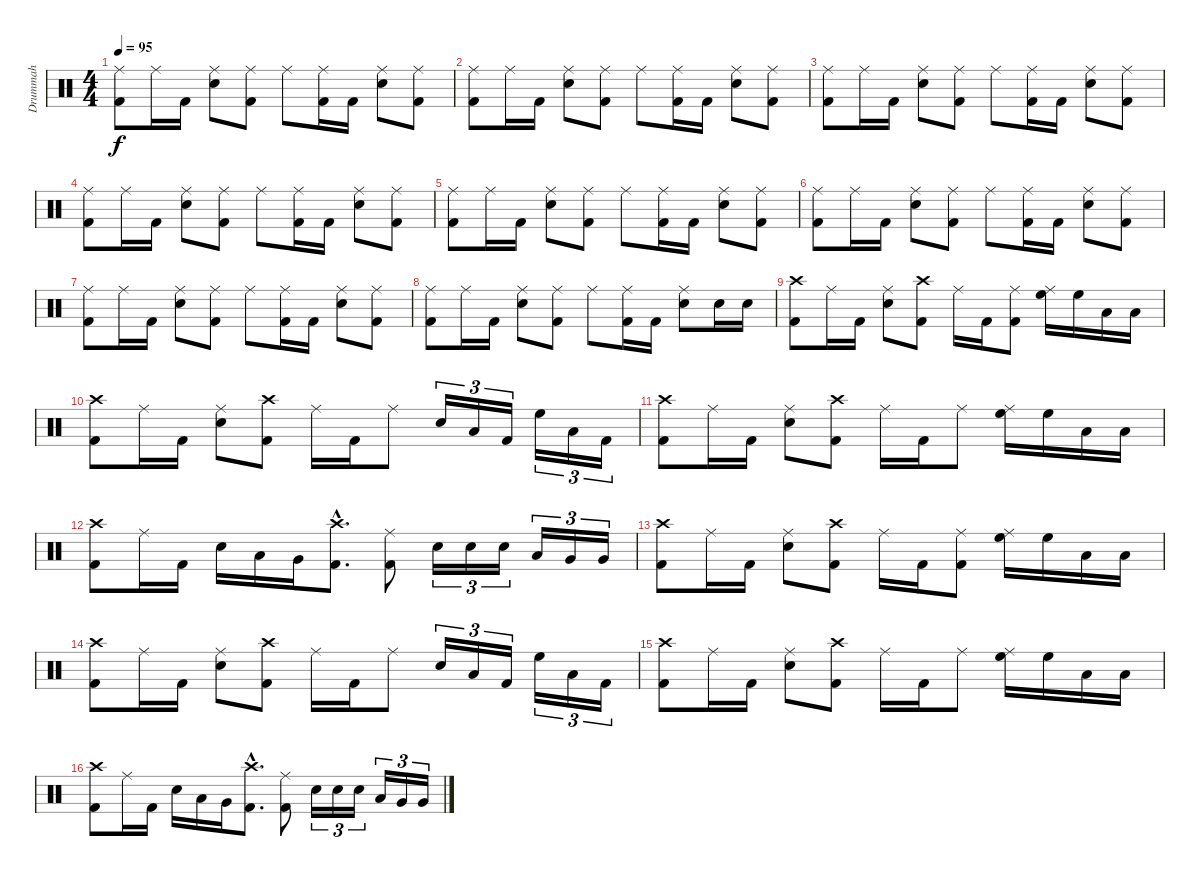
\track ("Drummah" "Drummah") {instrument percussion}
\staff {score}
\articulation defaults
\ts (4 4)
\tempo 95
\clef neutral
\ks c
("Ride (middle)" "Kick (hit) 2").8{dy f} "Ride (middle)".16 "Kick (hit) 2".16 ("Ride (middle)" "Snare (hit) 2").8 ("Ride (middle)" "Kick (hit) 2").8 "Ride (middle)".8 ("Ride (middle)" "Kick (hit) 2").16 "Kick (hit) 2".16 ("Ride (middle)" "Snare (hit) 2").8 ("Ride (middle)" "Kick (hit) 2").8 |
("Ride (middle)" "Kick (hit) 2").8 "Ride (middle)".16 "Kick (hit) 2".16 ("Ride (middle)" "Snare (hit) 2").8 ("Ride (middle)" "Kick (hit) 2").8 "Ride (middle)".8 ("Ride (middle)" "Kick (hit) 2").16 "Kick (hit) 2".16 ("Ride (middle)" "Snare (hit) 2").8 ("Ride (middle)" "Kick (hit) 2").8 |
("Ride (middle)" "Kick (hit) 2").8 "Ride (middle)".16 "Kick (hit) 2".16 ("Ride (middle)" "Snare (hit) 2").8 ("Ride (middle)" "Kick (hit) 2").8 "Ride (middle)".8 ("Ride (middle)" "Kick (hit) 2").16 "Kick (hit) 2".16 ("Ride (middle)" "Snare (hit) 2").8 ("Ride (middle)" "Kick (hit) 2").8 |
("Ride (middle)" "Kick (hit) 2").8 "Ride (middle)".16 "Kick (hit) 2".16 ("Ride (middle)" "Snare (hit) 2").8 ("Ride (middle)" "Kick (hit) 2").8 "Ride (middle)".8 ("Ride (middle)" "Kick (hit) 2").16 "Kick (hit) 2".16 ("Ride (middle)" "Snare (hit) 2").8 ("Ride (middle)" "Kick (hit) 2").8 |
("Ride (middle)" "Kick (hit) 2").8 "Ride (middle)".16 "Kick (hit) 2".16 ("Ride (middle)" "Snare (hit) 2").8 ("Ride (middle)" "Kick (hit) 2").8 "Ride (middle)".8 ("Ride (middle)" "Kick (hit) 2").16 "Kick (hit) 2".16 ("Ride (middle)" "Snare (hit) 2").8 ("Ride (middle)" "Kick (hit) 2").8 |
("Ride (middle)" "Kick (hit) 2").8 "Ride (middle)".16 "Kick (hit) 2".16 ("Ride (middle)" "Snare (hit) 2").8 ("Ride (middle)" "Kick (hit) 2").8 "Ride (middle)".8 ("Ride (middle)" "Kick (hit) 2").16 "Kick (hit) 2".16 ("Ride (middle)" "Snare (hit) 2").8 ("Ride (middle)" "Kick (hit) 2").8 |
("Ride (middle)" "Kick (hit) 2").8 "Ride (middle)".16 "Kick (hit) 2".16 ("Ride (middle)" "Snare (hit) 2").8 ("Ride (middle)" "Kick (hit) 2").8 "Ride (middle)".8 ("Ride (middle)" "Kick (hit) 2").16 "Kick (hit) 2".16 ("Ride (middle)" "Snare (hit) 2").8 ("Ride (middle)" "Kick (hit) 2").8 |
("Ride (middle)" "Kick (hit) 2").8 "Ride (middle)".16 "Kick (hit) 2".16 ("Ride (middle)" "Snare (hit) 2").8 ("Ride (middle)" "Kick (hit) 2").8 "Ride (middle)".8 ("Ride (middle)" "Kick (hit) 2").16 "Kick (hit) 2".16 ("Ride (middle)" "Snare (hit) 2").8 "Snare (hit) 2".16 "Snare (hit) 2".16 |
("Crash high (hit)" "Kick (hit) 2").8 "Ride (middle)".16 "Kick (hit) 2".16 ("Ride (middle)" "Snare (hit) 2").8 ("Crash high (hit)" "Kick (hit) 2").8 "Ride (middle)".16 "Kick (hit) 2".16 ("Ride (middle)" "Kick (hit) 2").8 ("Ride (middle)" "High Floor Tom (hit)").16 "High Floor Tom (hit)".16 "Low Tom (hit)".16 "Low Tom (hit)".16 |
("Crash high (hit)" "Kick (hit) 2").8 "Ride (middle)".16 "Kick (hit) 2".16 ("Ride (middle)" "Snare (hit) 2").8 ("Crash high (hit)" "Kick (hit) 2").8 "Ride (middle)".16 "Kick (hit) 2".16 "Ride (middle)".8 "Snare (hit) 2".16{tu (3 2)} "Low Tom (hit)".16{tu (3 2)} "Kick (hit) 2".16{tu (3 2)} "High Floor Tom (hit)".16{tu (3 2)} "Low Tom (hit)".16{tu (3 2)} "Kick (hit) 2".16{tu (3 2)} |
("Crash high (hit)" "Kick (hit) 2").8 "Ride (middle)".16 "Kick (hit) 2".16 ("Ride (middle)" "Snare (hit) 2").8 ("Crash high (hit)" "Kick (hit) 2").8 "Ride (middle)".16 "Kick (hit) 2".16 "Ride (middle)".8 ("Ride (middle)" "High Floor Tom (hit)").16 "High Floor Tom (hit)".16 "Low Tom (hit)".16 "Low Tom (hit)".16 |
("Crash high (hit)" "Kick (hit) 2").8 "Ride (middle)".16 "Kick (hit) 2".16 "Snare (hit) 2".16 "Low Tom (hit)".16 "Very Low Tom (hit)".16 ("Crash high (hit)"{hac} "Kick (hit) 2"{hac}).8{d} ("Ride (middle)" "Kick (hit) 2").8 "Snare (hit) 2".16{tu (3 2)} "Snare (hit) 2".16{tu (3 2)} "Snare (hit) 2".16{tu (3 2)} "Low Tom (hit)".16{tu (3 2)} "Very Low Tom (hit)".16{tu (3 2)} "Very Low Tom (hit)".16{tu (3 2)} |
("Crash high (hit)" "Kick (hit) 2").8 "Ride (middle)".16 "Kick (hit) 2".16 ("Ride (middle)" "Snare (hit) 2").8 ("Crash high (hit)" "Kick (hit) 2").8 "Ride (middle)".16 "Kick (hit) 2".16 ("Ride (middle)" "Kick (hit) 2").8 ("Ride (middle)" "High Floor Tom (hit)").16 "High Floor Tom (hit)".16 "Low Tom (hit)".16 "Low Tom (hit)".16 |
("Crash high (hit)" "Kick (hit) 2").8 "Ride (middle)".16 "Kick (hit) 2".16 ("Ride (middle)" "Snare (hit) 2").8 ("Crash high (hit)" "Kick (hit) 2").8 "Ride (middle)".16 "Kick (hit) 2".16 "Ride (middle)".8 "Snare (hit) 2".16{tu (3 2)} "Low Tom (hit)".16{tu (3 2)} "Kick (hit) 2".16{tu (3 2)} "High Floor Tom (hit)".16{tu (3 2)} "Low Tom (hit)".16{tu (3 2)} "Kick (hit) 2".16{tu (3 2)} |
("Crash high (hit)" "Kick (hit) 2").8 "Ride (middle)".16 "Kick (hit) 2".16 ("Ride (middle)" "Snare (hit) 2").8 ("Crash high (hit)" "Kick (hit) 2").8 "Ride (middle)".16 "Kick (hit) 2".16 "Ride (middle)".8 ("Ride (middle)" "High Floor Tom (hit)").16 "High Floor Tom (hit)".16 "Low Tom (hit)".16 "Low Tom (hit)".16 |
("Crash high (hit)" "Kick (hit) 2").8 "Ride (middle)".16 "Kick (hit) 2".16 "Snare (hit) 2".16 "Low Tom (hit)".16 "Very Low Tom (hit)".16 ("Crash high (hit)"{hac} "Kick (hit) 2"{hac}).8{d} ("Ride (middle)" "Kick (hit) 2").8 "Snare (hit) 2".16{tu (3 2)} "Snare (hit) 2".16{tu (3 2)} "Snare (hit) 2".16{tu (3 2)} "Low Tom (hit)".16{tu (3 2)} "Very Low Tom (hit)".16{tu (3 2)} "Very Low Tom (hit)".16{tu (3 2)}
